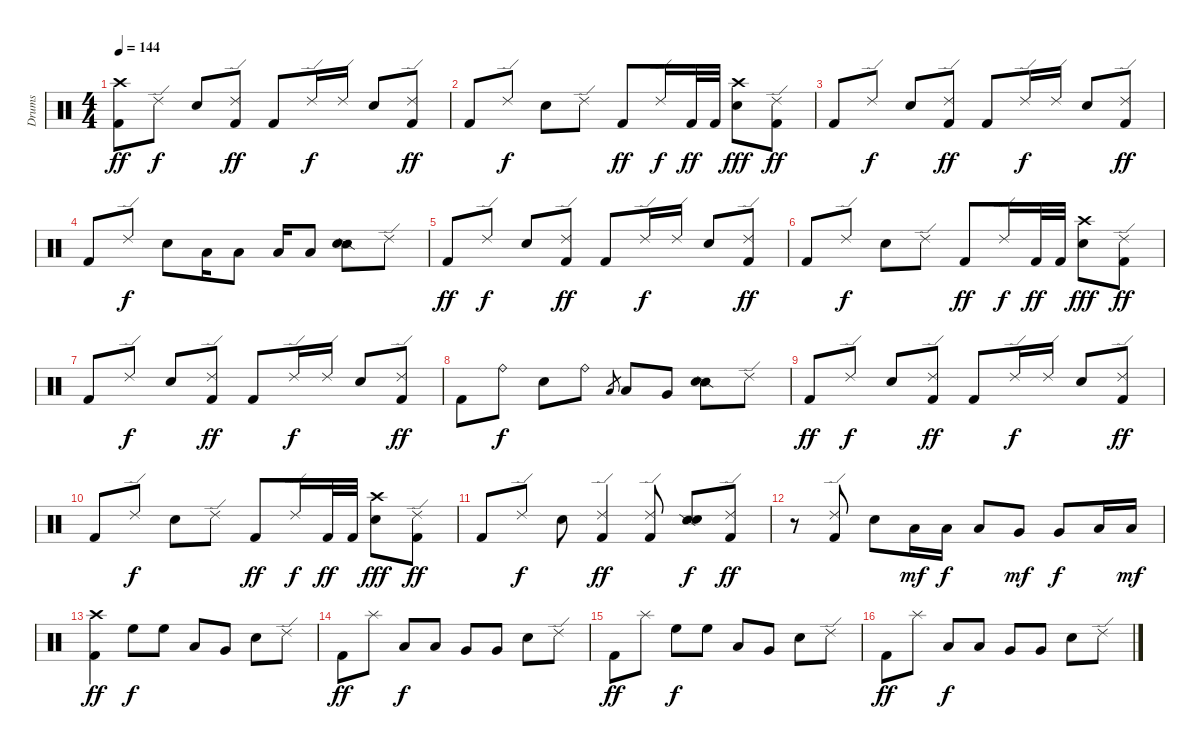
\track ("Drums" "Drums") {instrument percussion}
\staff {score}
\articulation defaults
\ts (4 4)
\tempo 144
\clef neutral
\ks c
("Crash high (hit)" "Kick (hit) 2").8{dy ff} "Ride (edge) 2".8{dy f} "Snare (hit) 2".8 ("Ride (edge) 2" "Kick (hit) 2").8{dy ff} "Kick (hit) 2".8 "Ride (edge) 2".16{dy f} "Ride (edge) 2".16 "Snare (hit) 2".8 ("Ride (edge) 2" "Kick (hit) 2").8{dy ff} |
"Kick (hit) 2".8 "Ride (edge) 2".8{dy f} "Snare (hit) 2".8 "Ride (edge) 2".8 "Kick (hit) 2".8{dy ff} "Ride (edge) 2".16{dy f} "Kick (hit) 2".32{dy ff} "Kick (hit) 2".32 ("Crash high (hit)" "Snare (hit) 2").8{dy fff} ("Ride (edge) 2" "Kick (hit) 2").8{dy ff} |
"Kick (hit) 2".8 "Ride (edge) 2".8{dy f} "Snare (hit) 2".8 ("Ride (edge) 2" "Kick (hit) 2").8{dy ff} "Kick (hit) 2".8 "Ride (edge) 2".16{dy f} "Ride (edge) 2".16 "Snare (hit) 2".8 ("Ride (edge) 2" "Kick (hit) 2").8{dy ff} |
"Kick (hit) 2".8 "Ride (edge) 2".8{dy f} "Snare (hit) 2".8 "Low Tom (hit)".16 "Low Tom (hit)".8 "Low Tom (hit)".16 "Low Tom (hit)".8 ("Snare (side stick) 2" "Snare (hit) 2").8 "Ride (edge) 2".8 |
"Kick (hit) 2".8{dy ff} "Ride (edge) 2".8{dy f} "Snare (hit) 2".8 ("Ride (edge) 2" "Kick (hit) 2").8{dy ff} "Kick (hit) 2".8 "Ride (edge) 2".16{dy f} "Ride (edge) 2".16 "Snare (hit) 2".8 ("Ride (edge) 2" "Kick (hit) 2").8{dy ff} |
"Kick (hit) 2".8 "Ride (edge) 2".8{dy f} "Snare (hit) 2".8 "Ride (edge) 2".8 "Kick (hit) 2".8{dy ff} "Ride (edge) 2".16{dy f} "Kick (hit) 2".32{dy ff} "Kick (hit) 2".32 ("Crash high (hit)" "Snare (hit) 2").8{dy fff} ("Ride (edge) 2" "Kick (hit) 2").8{dy ff} |
"Kick (hit) 2".8 "Ride (edge) 2".8{dy f} "Snare (hit) 2".8 ("Ride (edge) 2" "Kick (hit) 2").8{dy ff} "Kick (hit) 2".8 "Ride (edge) 2".16{dy f} "Ride (edge) 2".16 "Snare (hit) 2".8 ("Ride (edge) 2" "Kick (hit) 2").8{dy ff} |
"Kick (hit) 2".8 "Ride (bell)".8{dy f} "Snare (hit) 2".8 "Ride (bell)".8 "Low Tom (hit)".8{gr} "Low Tom (hit)".8 "Very Low Tom (hit)".8 ("Snare (side stick) 2" "Snare (hit) 2").8 "Ride (edge) 2".8 |
"Kick (hit) 2".8{dy ff} "Ride (edge) 2".8{dy f} "Snare (hit) 2".8 ("Ride (edge) 2" "Kick (hit) 2").8{dy ff} "Kick (hit) 2".8 "Ride (edge) 2".16{dy f} "Ride (edge) 2".16 "Snare (hit) 2".8 ("Ride (edge) 2" "Kick (hit) 2").8{dy ff} |
"Kick (hit) 2".8 "Ride (edge) 2".8{dy f} "Snare (hit) 2".8 "Ride (edge) 2".8 "Kick (hit) 2".8{dy ff} "Ride (edge) 2".16{dy f} "Kick (hit) 2".32{dy ff} "Kick (hit) 2".32 ("Crash high (hit)" "Snare (hit) 2").8{dy fff} ("Ride (edge) 2" "Kick (hit) 2").8{dy ff} |
"Kick (hit) 2".8 "Ride (edge) 2".8{dy f} "Snare (hit) 2".8 ("Ride (edge) 2" "Kick (hit) 2").4{dy ff} ("Ride (edge) 2" "Kick (hit) 2").8 ("Snare (side stick) 2" "Snare (hit) 2").8{dy f} ("Ride (edge) 2" "Kick (hit) 2").8{dy ff} |
r.8 ("Ride (edge) 2" "Kick (hit) 2").8 "Snare (hit) 2".8 "Low Tom (hit)".16{dy mf} "Low Tom (hit)".16{dy f} "Low Tom (hit)".8 "Very Low Tom (hit)".8{dy mf} "Very Low Tom (hit)".8{dy f} "Low Floor Tom (hit)".16 "Low Floor Tom (hit)".16{dy mf} |
("Crash high (hit)" "Kick (hit) 2").4{dy ff} "High Floor Tom (hit)".8{dy f} "High Floor Tom (hit)".8 "Low Tom (hit)".8 "Very Low Tom (hit)".8 "Snare (hit) 2".8 "Ride (edge) 2".8 |
"Kick (hit) 2".8{dy ff} "Splash (hit)".8 "Low Tom (hit)".8{dy f} "Low Tom (hit)".8 "Very Low Tom (hit)".8 "Very Low Tom (hit)".8 "Snare (hit) 2".8 "Ride (edge) 2".8 |
"Kick (hit) 2".8{dy ff} "Splash (hit)".8 "High Floor Tom (hit)".8{dy f} "High Floor Tom (hit)".8 "Low Tom (hit)".8 "Very Low Tom (hit)".8 "Snare (hit) 2".8 "Ride (edge) 2".8 |
"Kick (hit) 2".8{dy ff} "Splash (hit)".8 "Low Tom (hit)".8{dy f} "Low Tom (hit)".8 "Very Low Tom (hit)".8 "Very Low Tom (hit)".8 "Snare (hit) 2".8 "Ride (edge) 2".8
